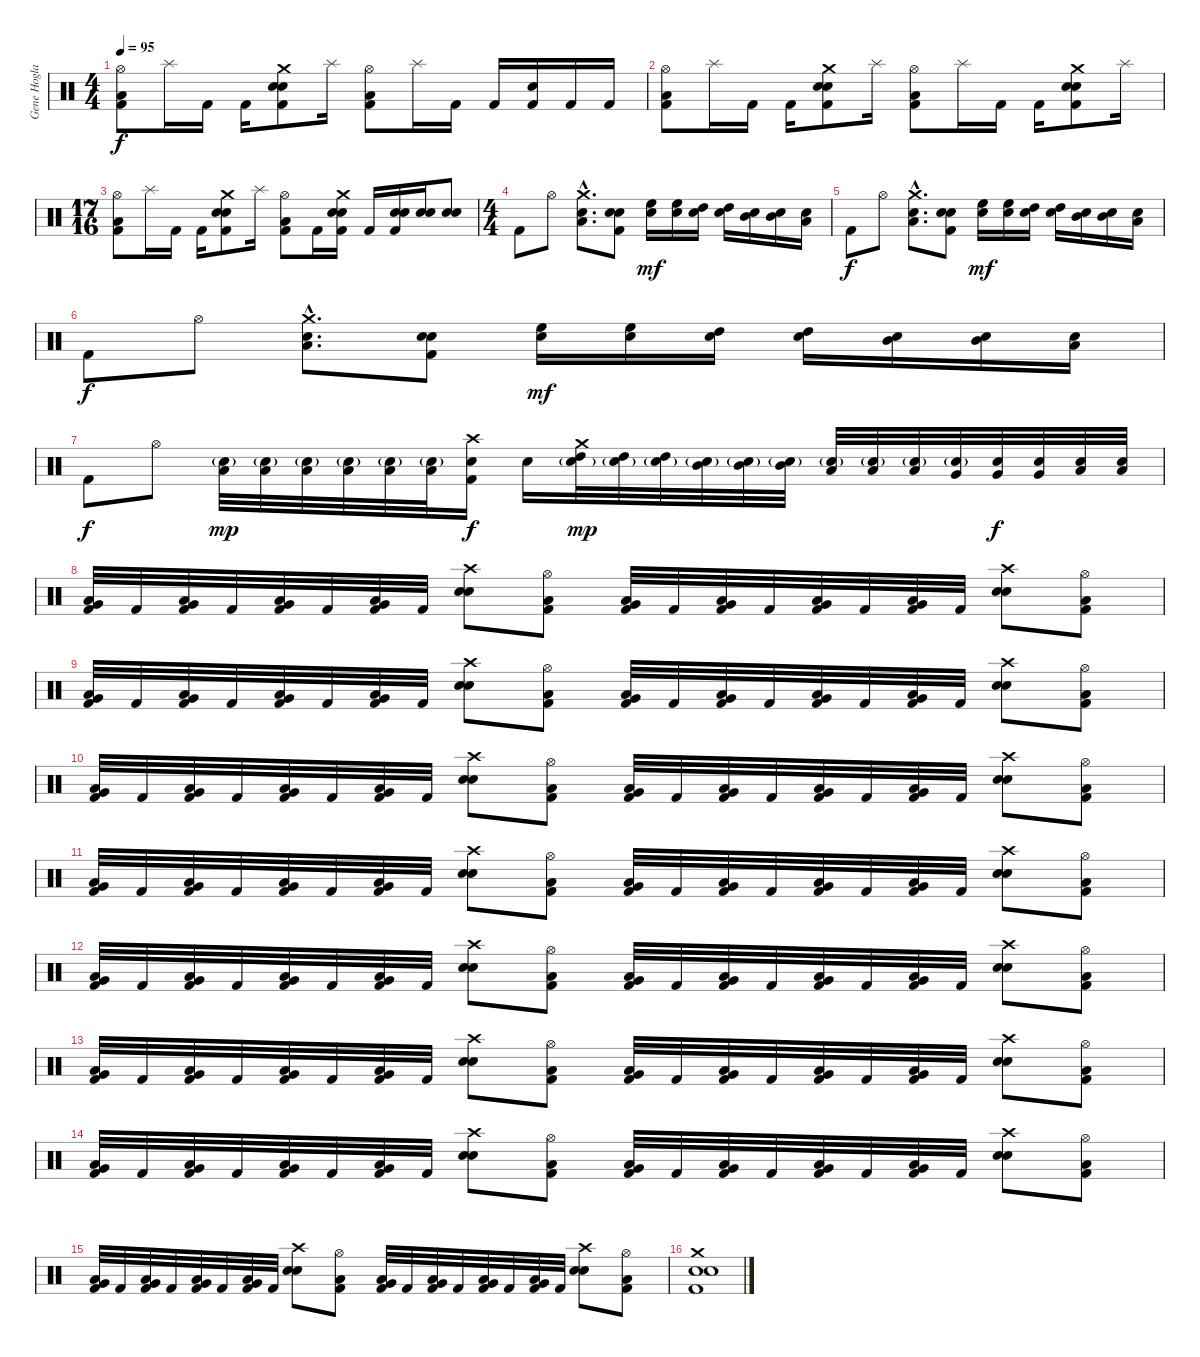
\track ("Gene Hoglan" "Gene Hogla") {instrument percussion}
\staff {score}
\articulation defaults
\ts (4 4)
\tempo 95
\clef neutral
\ks c
("Hi-Hat (open)" "Low Floor Tom (hit)" "Kick (hit) 2").8{dy f} "Splash (hit)".16 "Kick (hit) 2".16 "Kick (hit) 2".16 ("Electric Snare (hit)" "Crash medium (hit)" "Snare (hit) 2" "Kick (hit) 2").8 "Splash (hit)".16 ("Hi-Hat (open)" "Low Floor Tom (hit)" "Kick (hit) 2").8 "Splash (hit)".16 "Kick (hit) 2".16 "Kick (hit) 2".16 ("Snare (hit) 2" "Kick (hit) 2").16 "Kick (hit) 2".16 "Kick (hit) 2".16 |
("Hi-Hat (open)" "Low Floor Tom (hit)" "Kick (hit) 2").8 "Splash (hit)".16 "Kick (hit) 2".16 "Kick (hit) 2".16 ("Electric Snare (hit)" "Crash medium (hit)" "Snare (hit) 2" "Kick (hit) 2").8 "Splash (hit)".16 ("Hi-Hat (open)" "Low Floor Tom (hit)" "Kick (hit) 2").8 "Splash (hit)".16 "Kick (hit) 2".16 "Kick (hit) 2".16 ("Electric Snare (hit)" "Crash medium (hit)" "Snare (hit) 2" "Kick (hit) 2").8 "Splash (hit)".16 |
\ts (17 16)
("Hi-Hat (open)" "Low Floor Tom (hit)" "Kick (hit) 2").8 "Splash (hit)".16 "Kick (hit) 2".16 "Kick (hit) 2".16 ("Electric Snare (hit)" "Crash medium (hit)" "Snare (hit) 2" "Kick (hit) 2").8 "Splash (hit)".16 ("Hi-Hat (open)" "Low Floor Tom (hit)" "Kick (hit) 2").8 "Kick (hit) 2".16 ("Electric Snare (hit)" "Crash medium (hit)" "Snare (hit) 2" "Kick (hit) 2").16 "Kick (hit) 2".16 ("Electric Snare (hit)" "Snare (hit) 2" "Kick (hit) 2").16 ("Electric Snare (hit)" "Snare (hit) 2").16 ("Electric Snare (hit)" "Snare (hit) 2").8 |
\ts (4 4)
"Kick (hit) 2".8 "Hi-Hat (open)".8 ("Low Floor Tom (hit)"{hac} "Crash medium (hit)"{hac} "Electric Snare (hit)"{hac}).8{d} ("Snare (hit) 2" "Electric Snare (hit)" "Kick (hit) 2").8 ("High Floor Tom (hit)" "Electric Snare (hit)").16{dy mf} ("High Floor Tom (hit)" "Electric Snare (hit)").16 ("High Tom (hit)" "Electric Snare (hit)").16 ("High Tom (hit)" "Electric Snare (hit)").16 ("Mid Tom (hit)" "Electric Snare (hit)").16 ("Mid Tom (hit)" "Electric Snare (hit)").16 ("Low Tom (hit)" "Electric Snare (hit)").16 |
"Kick (hit) 2".8{dy f} "Hi-Hat (open)".8 ("Low Floor Tom (hit)"{hac} "Crash medium (hit)"{hac} "Electric Snare (hit)"{hac}).8{d} ("Snare (hit) 2" "Electric Snare (hit)" "Kick (hit) 2").8 ("High Floor Tom (hit)" "Electric Snare (hit)").16{dy mf} ("High Floor Tom (hit)" "Electric Snare (hit)").16 ("High Tom (hit)" "Electric Snare (hit)").16 ("High Tom (hit)" "Electric Snare (hit)").16 ("Mid Tom (hit)" "Electric Snare (hit)").16 ("Mid Tom (hit)" "Electric Snare (hit)").16 ("Low Tom (hit)" "Electric Snare (hit)").16 |
"Kick (hit) 2".8{dy f} "Hi-Hat (open)".8 ("Low Floor Tom (hit)"{hac} "Crash medium (hit)"{hac} "Electric Snare (hit)"{hac}).8{d} ("Snare (hit) 2" "Electric Snare (hit)" "Kick (hit) 2").8 ("High Floor Tom (hit)" "Electric Snare (hit)").16{dy mf} ("High Floor Tom (hit)" "Electric Snare (hit)").16 ("High Tom (hit)" "Electric Snare (hit)").16 ("High Tom (hit)" "Electric Snare (hit)").16 ("Mid Tom (hit)" "Electric Snare (hit)").16 ("Mid Tom (hit)" "Electric Snare (hit)").16 ("Low Tom (hit)" "Electric Snare (hit)").16 |
"Kick (hit) 2".8{dy f} "Hi-Hat (open)".8 ("Electric Snare (hit)"{g} "Low Floor Tom (hit)").32{dy mp} ("Electric Snare (hit)"{g} "Low Floor Tom (hit)").32 ("Electric Snare (hit)"{g} "Low Floor Tom (hit)").32 ("Electric Snare (hit)"{g} "Low Floor Tom (hit)").32 ("Electric Snare (hit)"{g} "Low Floor Tom (hit)").32 ("Electric Snare (hit)"{g} "Low Floor Tom (hit)").32 ("Crash high (hit)" "Electric Snare (hit)" "Kick (hit) 2").16{dy f} "Snare (hit) 2".16 ("Electric Snare (hit)"{g} "Crash medium (hit)" "High Tom (hit)").32{dy mp} ("Electric Snare (hit)"{g} "High Tom (hit)").32 ("Electric Snare (hit)"{g} "High Tom (hit)").32 ("Electric Snare (hit)"{g} "Mid Tom (hit)").32 ("Electric Snare (hit)"{g} "Mid Tom (hit)").32 ("Electric Snare (hit)"{g} "Mid Tom (hit)").32 ("Snare (hit) 2"{g} "Low Tom (hit)").32 ("Snare (hit) 2"{g} "Low Tom (hit)").32 ("Snare (hit) 2"{g} "Low Tom (hit)").32 ("Snare (hit) 2"{g} "Very Low Tom (hit)").32 ("Snare (hit) 2" "Very Low Tom (hit)").32{dy f} ("Snare (hit) 2" "Very Low Tom (hit)").32 ("Snare (hit) 2" "Low Floor Tom (hit)").32 ("Snare (hit) 2" "Low Floor Tom (hit)").32 |
("Very Low Tom (hit)" "Low Floor Tom (hit)" "Kick (hit) 2").32 "Kick (hit) 2".32 ("Very Low Tom (hit)" "Low Floor Tom (hit)" "Kick (hit) 2").32 "Kick (hit) 2".32 ("Very Low Tom (hit)" "Low Floor Tom (hit)" "Kick (hit) 2").32 "Kick (hit) 2".32 ("Very Low Tom (hit)" "Low Floor Tom (hit)" "Kick (hit) 2").32 "Kick (hit) 2".32 ("Electric Snare (hit)" "Crash high (hit)" "Snare (hit) 2").8 ("Hi-Hat (open)" "Low Floor Tom (hit)" "Kick (hit) 2").8 ("Very Low Tom (hit)" "Low Floor Tom (hit)" "Kick (hit) 2").32 "Kick (hit) 2".32 ("Very Low Tom (hit)" "Low Floor Tom (hit)" "Kick (hit) 2").32 "Kick (hit) 2".32 ("Very Low Tom (hit)" "Low Floor Tom (hit)" "Kick (hit) 2").32 "Kick (hit) 2".32 ("Very Low Tom (hit)" "Low Floor Tom (hit)" "Kick (hit) 2").32 "Kick (hit) 2".32 ("Electric Snare (hit)" "Crash high (hit)" "Snare (hit) 2").8 ("Hi-Hat (open)" "Low Floor Tom (hit)" "Kick (hit) 2").8 |
("Very Low Tom (hit)" "Low Floor Tom (hit)" "Kick (hit) 2").32 "Kick (hit) 2".32 ("Very Low Tom (hit)" "Low Floor Tom (hit)" "Kick (hit) 2").32 "Kick (hit) 2".32 ("Very Low Tom (hit)" "Low Floor Tom (hit)" "Kick (hit) 2").32 "Kick (hit) 2".32 ("Very Low Tom (hit)" "Low Floor Tom (hit)" "Kick (hit) 2").32 "Kick (hit) 2".32 ("Electric Snare (hit)" "Crash high (hit)" "Snare (hit) 2").8 ("Hi-Hat (open)" "Low Floor Tom (hit)" "Kick (hit) 2").8 ("Very Low Tom (hit)" "Low Floor Tom (hit)" "Kick (hit) 2").32 "Kick (hit) 2".32 ("Very Low Tom (hit)" "Low Floor Tom (hit)" "Kick (hit) 2").32 "Kick (hit) 2".32 ("Very Low Tom (hit)" "Low Floor Tom (hit)" "Kick (hit) 2").32 "Kick (hit) 2".32 ("Very Low Tom (hit)" "Low Floor Tom (hit)" "Kick (hit) 2").32 "Kick (hit) 2".32 ("Electric Snare (hit)" "Crash high (hit)" "Snare (hit) 2").8 ("Hi-Hat (open)" "Low Floor Tom (hit)" "Kick (hit) 2").8 |
("Very Low Tom (hit)" "Low Floor Tom (hit)" "Kick (hit) 2").32 "Kick (hit) 2".32 ("Very Low Tom (hit)" "Low Floor Tom (hit)" "Kick (hit) 2").32 "Kick (hit) 2".32 ("Very Low Tom (hit)" "Low Floor Tom (hit)" "Kick (hit) 2").32 "Kick (hit) 2".32 ("Very Low Tom (hit)" "Low Floor Tom (hit)" "Kick (hit) 2").32 "Kick (hit) 2".32 ("Electric Snare (hit)" "Crash high (hit)" "Snare (hit) 2").8 ("Hi-Hat (open)" "Low Floor Tom (hit)" "Kick (hit) 2").8 ("Very Low Tom (hit)" "Low Floor Tom (hit)" "Kick (hit) 2").32 "Kick (hit) 2".32 ("Very Low Tom (hit)" "Low Floor Tom (hit)" "Kick (hit) 2").32 "Kick (hit) 2".32 ("Very Low Tom (hit)" "Low Floor Tom (hit)" "Kick (hit) 2").32 "Kick (hit) 2".32 ("Very Low Tom (hit)" "Low Floor Tom (hit)" "Kick (hit) 2").32 "Kick (hit) 2".32 ("Electric Snare (hit)" "Crash high (hit)" "Snare (hit) 2").8 ("Hi-Hat (open)" "Low Floor Tom (hit)" "Kick (hit) 2").8 |
("Very Low Tom (hit)" "Low Floor Tom (hit)" "Kick (hit) 2").32 "Kick (hit) 2".32 ("Very Low Tom (hit)" "Low Floor Tom (hit)" "Kick (hit) 2").32 "Kick (hit) 2".32 ("Very Low Tom (hit)" "Low Floor Tom (hit)" "Kick (hit) 2").32 "Kick (hit) 2".32 ("Very Low Tom (hit)" "Low Floor Tom (hit)" "Kick (hit) 2").32 "Kick (hit) 2".32 ("Electric Snare (hit)" "Crash high (hit)" "Snare (hit) 2").8 ("Hi-Hat (open)" "Low Floor Tom (hit)" "Kick (hit) 2").8 ("Very Low Tom (hit)" "Low Floor Tom (hit)" "Kick (hit) 2").32 "Kick (hit) 2".32 ("Very Low Tom (hit)" "Low Floor Tom (hit)" "Kick (hit) 2").32 "Kick (hit) 2".32 ("Very Low Tom (hit)" "Low Floor Tom (hit)" "Kick (hit) 2").32 "Kick (hit) 2".32 ("Very Low Tom (hit)" "Low Floor Tom (hit)" "Kick (hit) 2").32 "Kick (hit) 2".32 ("Electric Snare (hit)" "Crash high (hit)" "Snare (hit) 2").8 ("Hi-Hat (open)" "Low Floor Tom (hit)" "Kick (hit) 2").8 |
("Very Low Tom (hit)" "Low Floor Tom (hit)" "Kick (hit) 2").32 "Kick (hit) 2".32 ("Very Low Tom (hit)" "Low Floor Tom (hit)" "Kick (hit) 2").32 "Kick (hit) 2".32 ("Very Low Tom (hit)" "Low Floor Tom (hit)" "Kick (hit) 2").32 "Kick (hit) 2".32 ("Very Low Tom (hit)" "Low Floor Tom (hit)" "Kick (hit) 2").32 "Kick (hit) 2".32 ("Electric Snare (hit)" "Crash high (hit)" "Snare (hit) 2").8 ("Hi-Hat (open)" "Low Floor Tom (hit)" "Kick (hit) 2").8 ("Very Low Tom (hit)" "Low Floor Tom (hit)" "Kick (hit) 2").32 "Kick (hit) 2".32 ("Very Low Tom (hit)" "Low Floor Tom (hit)" "Kick (hit) 2").32 "Kick (hit) 2".32 ("Very Low Tom (hit)" "Low Floor Tom (hit)" "Kick (hit) 2").32 "Kick (hit) 2".32 ("Very Low Tom (hit)" "Low Floor Tom (hit)" "Kick (hit) 2").32 "Kick (hit) 2".32 ("Electric Snare (hit)" "Crash high (hit)" "Snare (hit) 2").8 ("Hi-Hat (open)" "Low Floor Tom (hit)" "Kick (hit) 2").8 |
("Very Low Tom (hit)" "Low Floor Tom (hit)" "Kick (hit) 2").32 "Kick (hit) 2".32 ("Very Low Tom (hit)" "Low Floor Tom (hit)" "Kick (hit) 2").32 "Kick (hit) 2".32 ("Very Low Tom (hit)" "Low Floor Tom (hit)" "Kick (hit) 2").32 "Kick (hit) 2".32 ("Very Low Tom (hit)" "Low Floor Tom (hit)" "Kick (hit) 2").32 "Kick (hit) 2".32 ("Electric Snare (hit)" "Crash high (hit)" "Snare (hit) 2").8 ("Hi-Hat (open)" "Low Floor Tom (hit)" "Kick (hit) 2").8 ("Very Low Tom (hit)" "Low Floor Tom (hit)" "Kick (hit) 2").32 "Kick (hit) 2".32 ("Very Low Tom (hit)" "Low Floor Tom (hit)" "Kick (hit) 2").32 "Kick (hit) 2".32 ("Very Low Tom (hit)" "Low Floor Tom (hit)" "Kick (hit) 2").32 "Kick (hit) 2".32 ("Very Low Tom (hit)" "Low Floor Tom (hit)" "Kick (hit) 2").32 "Kick (hit) 2".32 ("Electric Snare (hit)" "Crash high (hit)" "Snare (hit) 2").8 ("Hi-Hat (open)" "Low Floor Tom (hit)" "Kick (hit) 2").8 |
("Very Low Tom (hit)" "Low Floor Tom (hit)" "Kick (hit) 2").32 "Kick (hit) 2".32 ("Very Low Tom (hit)" "Low Floor Tom (hit)" "Kick (hit) 2").32 "Kick (hit) 2".32 ("Very Low Tom (hit)" "Low Floor Tom (hit)" "Kick (hit) 2").32 "Kick (hit) 2".32 ("Very Low Tom (hit)" "Low Floor Tom (hit)" "Kick (hit) 2").32 "Kick (hit) 2".32 ("Electric Snare (hit)" "Crash high (hit)" "Snare (hit) 2").8 ("Hi-Hat (open)" "Low Floor Tom (hit)" "Kick (hit) 2").8 ("Very Low Tom (hit)" "Low Floor Tom (hit)" "Kick (hit) 2").32 "Kick (hit) 2".32 ("Very Low Tom (hit)" "Low Floor Tom (hit)" "Kick (hit) 2").32 "Kick (hit) 2".32 ("Very Low Tom (hit)" "Low Floor Tom (hit)" "Kick (hit) 2").32 "Kick (hit) 2".32 ("Very Low Tom (hit)" "Low Floor Tom (hit)" "Kick (hit) 2").32 "Kick (hit) 2".32 ("Electric Snare (hit)" "Crash high (hit)" "Snare (hit) 2").8 ("Hi-Hat (open)" "Low Floor Tom (hit)" "Kick (hit) 2").8 |
("Very Low Tom (hit)" "Low Floor Tom (hit)" "Kick (hit) 2").32 "Kick (hit) 2".32 ("Very Low Tom (hit)" "Low Floor Tom (hit)" "Kick (hit) 2").32 "Kick (hit) 2".32 ("Very Low Tom (hit)" "Low Floor Tom (hit)" "Kick (hit) 2").32 "Kick (hit) 2".32 ("Very Low Tom (hit)" "Low Floor Tom (hit)" "Kick (hit) 2").32 "Kick (hit) 2".32 ("Electric Snare (hit)" "Crash high (hit)" "Snare (hit) 2").8 ("Hi-Hat (open)" "Low Floor Tom (hit)" "Kick (hit) 2").8 ("Very Low Tom (hit)" "Low Floor Tom (hit)" "Kick (hit) 2").32 "Kick (hit) 2".32 ("Very Low Tom (hit)" "Low Floor Tom (hit)" "Kick (hit) 2").32 "Kick (hit) 2".32 ("Very Low Tom (hit)" "Low Floor Tom (hit)" "Kick (hit) 2").32 "Kick (hit) 2".32 ("Very Low Tom (hit)" "Low Floor Tom (hit)" "Kick (hit) 2").32 "Kick (hit) 2".32 ("Electric Snare (hit)" "Crash high (hit)" "Snare (hit) 2").8 ("Hi-Hat (open)" "Low Floor Tom (hit)" "Kick (hit) 2").8 |
("Snare (hit) 2" "Crash medium (hit)" "Electric Snare (hit)" "Kick (hit) 2").1
